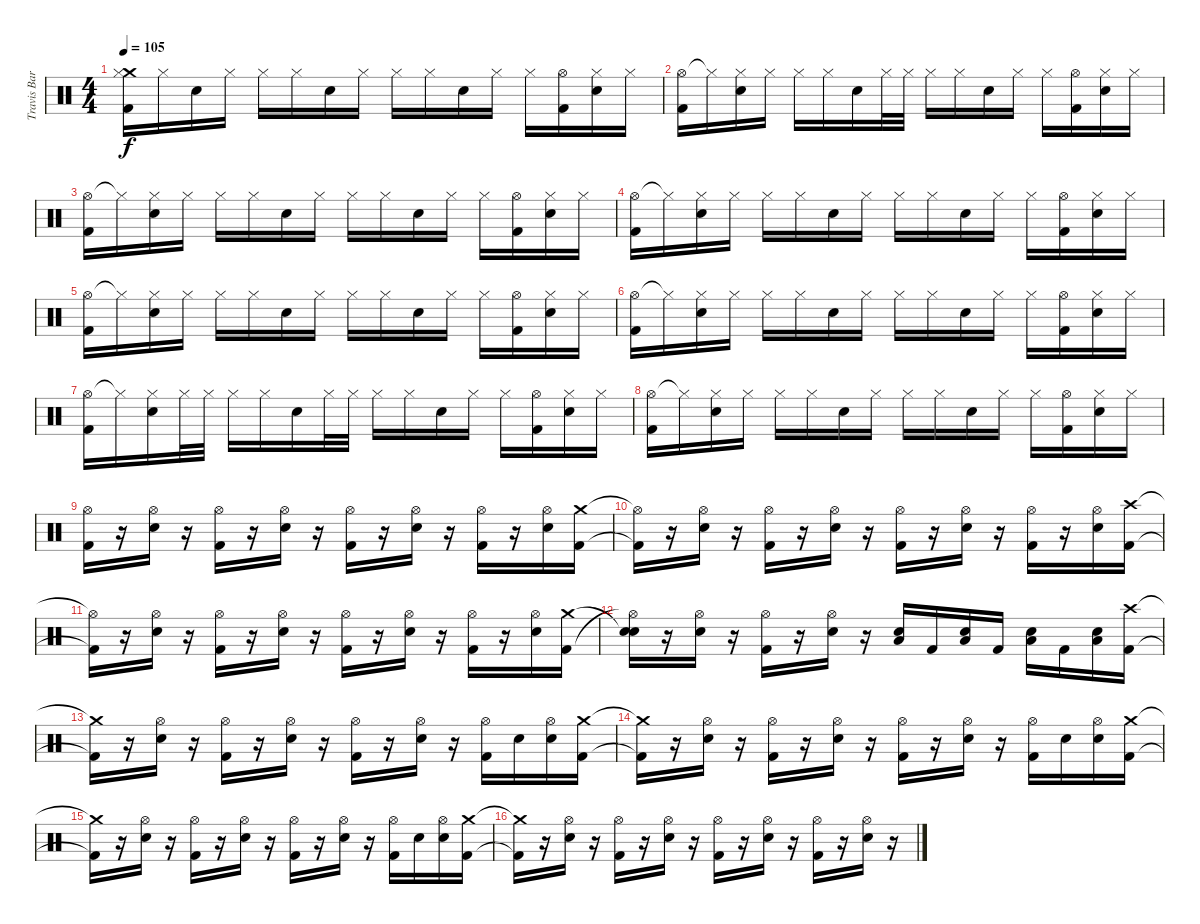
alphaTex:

\track ("Travis Barker(Drums)" "Travis Bar") {instrument percussion}
\staff {score}
\articulation defaults
\ts (4 4)
\tempo 105
\clef neutral
\ks c
("Crash medium (hit)" "Hi-Hat (closed)" "Kick (hit) 2").16{dy f} "Hi-Hat (closed)".16 "Electric Snare (hit)".16 "Hi-Hat (closed)".16 "Hi-Hat (closed)".16 "Hi-Hat (closed)".16 "Electric Snare (hit)".16 "Hi-Hat (closed)".16 "Hi-Hat (closed)".16 "Hi-Hat (closed)".16 "Electric Snare (hit)".16 "Hi-Hat (closed)".16 "Hi-Hat (closed)".16 ("Hi-Hat (open)" "Kick (hit) 2").16 ("Hi-Hat (closed)" "Electric Snare (hit)").16 "Hi-Hat (closed)".16 |
("Hi-Hat (open)" "Kick (hit) 2").16 "Hi-Hat (closed)"{t}.16 ("Hi-Hat (closed)" "Electric Snare (hit)").16 "Hi-Hat (closed)".16 "Hi-Hat (closed)".16 "Hi-Hat (closed)".16 "Electric Snare (hit)".16 "Hi-Hat (closed)".32 "Hi-Hat (closed)".32 "Hi-Hat (closed)".16 "Hi-Hat (closed)".16 "Electric Snare (hit)".16 "Hi-Hat (closed)".16 "Hi-Hat (closed)".16 ("Hi-Hat (open)" "Kick (hit) 2").16 ("Hi-Hat (closed)" "Electric Snare (hit)").16 "Hi-Hat (closed)".16 |
("Hi-Hat (open)" "Kick (hit) 2").16 "Hi-Hat (closed)"{t}.16 ("Hi-Hat (closed)" "Electric Snare (hit)").16 "Hi-Hat (closed)".16 "Hi-Hat (closed)".16 "Hi-Hat (closed)".16 "Electric Snare (hit)".16 "Hi-Hat (closed)".16 "Hi-Hat (closed)".16 "Hi-Hat (closed)".16 "Electric Snare (hit)".16 "Hi-Hat (closed)".16 "Hi-Hat (closed)".16 ("Hi-Hat (open)" "Kick (hit) 2").16 ("Hi-Hat (closed)" "Electric Snare (hit)").16 "Hi-Hat (closed)".16 |
("Hi-Hat (open)" "Kick (hit) 2").16 "Hi-Hat (closed)"{t}.16 ("Hi-Hat (closed)" "Electric Snare (hit)").16 "Hi-Hat (closed)".16 "Hi-Hat (closed)".16 "Hi-Hat (closed)".16 "Electric Snare (hit)".16 "Hi-Hat (closed)".16 "Hi-Hat (closed)".16 "Hi-Hat (closed)".16 "Electric Snare (hit)".16 "Hi-Hat (closed)".16 "Hi-Hat (closed)".16 ("Hi-Hat (open)" "Kick (hit) 2").16 ("Hi-Hat (closed)" "Electric Snare (hit)").16 "Hi-Hat (closed)".16 |
("Hi-Hat (open)" "Kick (hit) 2").16 "Hi-Hat (closed)"{t}.16 ("Hi-Hat (closed)" "Electric Snare (hit)").16 "Hi-Hat (closed)".16 "Hi-Hat (closed)".16 "Hi-Hat (closed)".16 "Electric Snare (hit)".16 "Hi-Hat (closed)".16 "Hi-Hat (closed)".16 "Hi-Hat (closed)".16 "Electric Snare (hit)".16 "Hi-Hat (closed)".16 "Hi-Hat (closed)".16 ("Hi-Hat (open)" "Kick (hit) 2").16 ("Hi-Hat (closed)" "Electric Snare (hit)").16 "Hi-Hat (closed)".16 |
("Hi-Hat (open)" "Kick (hit) 2").16 "Hi-Hat (closed)"{t}.16 ("Hi-Hat (closed)" "Electric Snare (hit)").16 "Hi-Hat (closed)".16 "Hi-Hat (closed)".16 "Hi-Hat (closed)".16 "Electric Snare (hit)".16 "Hi-Hat (closed)".16 "Hi-Hat (closed)".16 "Hi-Hat (closed)".16 "Electric Snare (hit)".16 "Hi-Hat (closed)".16 "Hi-Hat (closed)".16 ("Hi-Hat (open)" "Kick (hit) 2").16 ("Hi-Hat (closed)" "Electric Snare (hit)").16 "Hi-Hat (closed)".16 |
("Hi-Hat (open)" "Kick (hit) 2").16 "Hi-Hat (closed)"{t}.16 ("Hi-Hat (closed)" "Electric Snare (hit)").16 "Hi-Hat (closed)".32 "Hi-Hat (closed)".32 "Hi-Hat (closed)".16 "Hi-Hat (closed)".16 "Electric Snare (hit)".16 "Hi-Hat (closed)".32 "Hi-Hat (closed)".32 "Hi-Hat (closed)".16 "Hi-Hat (closed)".16 "Electric Snare (hit)".16 "Hi-Hat (closed)".16 "Hi-Hat (closed)".16 ("Hi-Hat (open)" "Kick (hit) 2").16 ("Hi-Hat (closed)" "Electric Snare (hit)").16 "Hi-Hat (closed)".16 |
("Hi-Hat (open)" "Kick (hit) 2").16 "Hi-Hat (closed)"{t}.16 ("Hi-Hat (closed)" "Electric Snare (hit)").16 "Hi-Hat (closed)".16 "Hi-Hat (closed)".16 "Hi-Hat (closed)".16 "Electric Snare (hit)".16 "Hi-Hat (closed)".16 "Hi-Hat (closed)".16 "Hi-Hat (closed)".16 "Electric Snare (hit)".16 "Hi-Hat (closed)".16 "Hi-Hat (closed)".16 ("Hi-Hat (open)" "Kick (hit) 2").16 ("Hi-Hat (closed)" "Electric Snare (hit)").16 "Hi-Hat (closed)".16 |
("Hi-Hat (open)" "Kick (hit) 2").16 r.16 ("Hi-Hat (open)" "Electric Snare (hit)").16 r.16 ("Hi-Hat (open)" "Kick (hit) 2").16 r.16 ("Hi-Hat (open)" "Electric Snare (hit)").16 r.16 ("Hi-Hat (open)" "Kick (hit) 2").16 r.16 ("Hi-Hat (open)" "Electric Snare (hit)").16 r.16 ("Hi-Hat (open)" "Kick (hit) 2").16 r.16 ("Hi-Hat (open)" "Electric Snare (hit)").16 ("Crash medium (hit)" "Kick (hit) 2").16 |
("Hi-Hat (open)"{t} "Kick (hit) 2"{t}).16 r.16 ("Hi-Hat (open)" "Electric Snare (hit)").16 r.16 ("Hi-Hat (open)" "Kick (hit) 2").16 r.16 ("Hi-Hat (open)" "Electric Snare (hit)").16 r.16 ("Hi-Hat (open)" "Kick (hit) 2").16 r.16 ("Hi-Hat (open)" "Electric Snare (hit)").16 r.16 ("Hi-Hat (open)" "Kick (hit) 2").16 r.16 ("Hi-Hat (open)" "Electric Snare (hit)").16 ("Crash high (hit)" "Kick (hit) 2").16 |
("Hi-Hat (open)"{t} "Kick (hit) 2"{t}).16 r.16 ("Hi-Hat (open)" "Electric Snare (hit)").16 r.16 ("Hi-Hat (open)" "Kick (hit) 2").16 r.16 ("Hi-Hat (open)" "Electric Snare (hit)").16 r.16 ("Hi-Hat (open)" "Kick (hit) 2").16 r.16 ("Hi-Hat (open)" "Electric Snare (hit)").16 r.16 ("Hi-Hat (open)" "Kick (hit) 2").16 r.16 ("Hi-Hat (open)" "Electric Snare (hit)").16 ("Crash medium (hit)" "Kick (hit) 2").16 |
("Snare (hit)"{t} "Hi-Hat (open)"{t} "Snare (hit)").16 r.16 ("Hi-Hat (open)" "Electric Snare (hit)").16 r.16 ("Hi-Hat (open)" "Kick (hit) 2").16 r.16 ("Hi-Hat (open)" "Electric Snare (hit)").16 r.16 ("Low Tom (hit)" "Electric Snare (hit)").16 "Kick (hit) 2".16 ("Low Tom (hit)" "Electric Snare (hit)").16 "Kick (hit) 2".16 ("Low Tom (hit)" "Electric Snare (hit)").16 "Kick (hit) 2".16 ("Low Tom (hit)" "Electric Snare (hit)").16 ("Crash high (hit)" "Kick (hit) 2").16 |
("Crash medium (hit)"{t} "Kick (hit) 2"{t}).16 r.16 ("Hi-Hat (open)" "Electric Snare (hit)").16 r.16 ("Hi-Hat (open)" "Kick (hit) 2").16 r.16 ("Hi-Hat (open)" "Electric Snare (hit)").16 r.16 ("Hi-Hat (open)" "Kick (hit) 2").16 r.16 ("Hi-Hat (open)" "Electric Snare (hit)").16 r.16 ("Hi-Hat (open)" "Kick (hit) 2").16 "Electric Snare (hit)".16 ("Hi-Hat (open)" "Electric Snare (hit)").16 ("Crash medium (hit)" "Kick (hit) 2").16 |
("Crash medium (hit)"{t} "Kick (hit) 2"{t}).16 r.16 ("Hi-Hat (open)" "Electric Snare (hit)").16 r.16 ("Hi-Hat (open)" "Kick (hit) 2").16 r.16 ("Hi-Hat (open)" "Electric Snare (hit)").16 r.16 ("Hi-Hat (open)" "Kick (hit) 2").16 r.16 ("Hi-Hat (open)" "Electric Snare (hit)").16 r.16 ("Hi-Hat (open)" "Kick (hit) 2").16 "Electric Snare (hit)".16 ("Hi-Hat (open)" "Electric Snare (hit)").16 ("Crash medium (hit)" "Kick (hit) 2").16 |
("Crash medium (hit)"{t} "Kick (hit) 2"{t}).16 r.16 ("Hi-Hat (open)" "Electric Snare (hit)").16 r.16 ("Hi-Hat (open)" "Kick (hit) 2").16 r.16 ("Hi-Hat (open)" "Electric Snare (hit)").16 r.16 ("Hi-Hat (open)" "Kick (hit) 2").16 r.16 ("Hi-Hat (open)" "Electric Snare (hit)").16 r.16 ("Hi-Hat (open)" "Kick (hit) 2").16 "Electric Snare (hit)".16 ("Hi-Hat (open)" "Electric Snare (hit)").16 ("Crash medium (hit)" "Kick (hit) 2").16 |
("Crash medium (hit)"{t} "Kick (hit) 2"{t}).16 r.16 ("Hi-Hat (open)" "Electric Snare (hit)").16 r.16 ("Hi-Hat (open)" "Kick (hit) 2").16 r.16 ("Hi-Hat (open)" "Electric Snare (hit)").16 r.16 ("Hi-Hat (open)" "Kick (hit) 2").16 r.16 ("Hi-Hat (open)" "Electric Snare (hit)").16 r.16 ("Hi-Hat (open)" "Kick (hit) 2").16 r.16 ("Hi-Hat (open)" "Electric Snare (hit)").16 r.16
